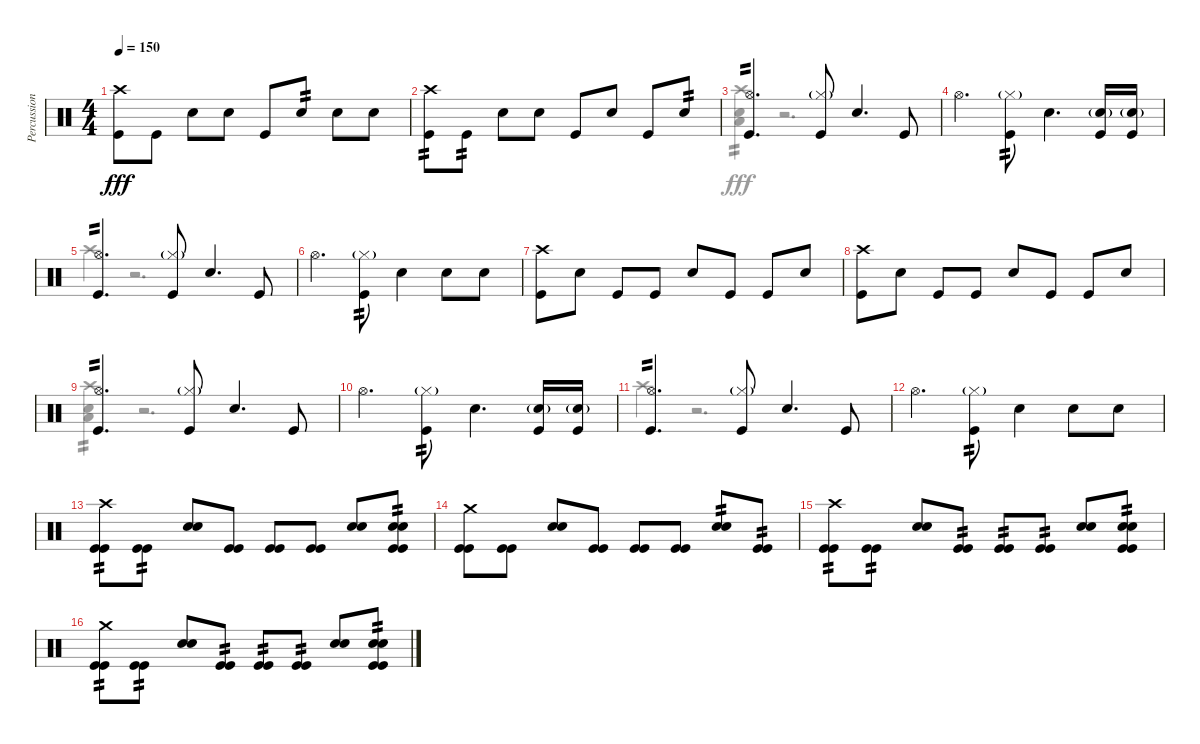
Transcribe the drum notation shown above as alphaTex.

\track ("Percussion" "Percussion") {instrument percussion}
\staff {score}
\articulation defaults
\voice
\ts (4 4)
\tempo 150
\clef neutral
\ks c
("Crash high (hit)" "Kick (hit)").8{dy fff} "Kick (hit)".8 "Snare (hit) 2".8 "Snare (hit) 2".8 "Kick (hit)".8 "Snare (hit) 2".8{tp 2} "Snare (hit) 2".8 "Snare (hit) 2".8 |
("Crash high (hit)" "Kick (hit)").8{tp 2} "Kick (hit)".8{tp 2} "Snare (hit) 2".8 "Snare (hit) 2".8 "Kick (hit)".8 "Snare (hit) 2".8 "Kick (hit)".8 "Snare (hit) 2".8{tp 2} |
("Hi-Hat (open)" "Kick (hit)").4{d tp 2} ("Hi-Hat (closed)"{g} "Kick (hit)").8 "Snare (hit) 2".4{d} "Kick (hit)".8 |
"Hi-Hat (open)".4{d} ("Hi-Hat (closed)"{g} "Kick (hit)").8{tp 2} "Snare (hit) 2".4{d} ("Snare (hit) 2"{g} "Kick (hit)").16 ("Snare (hit) 2"{g} "Kick (hit)").16 |
("Hi-Hat (open)" "Kick (hit)").4{d tp 2} ("Hi-Hat (closed)"{g} "Kick (hit)").8 "Snare (hit) 2".4{d} "Kick (hit)".8 |
"Hi-Hat (open)".4{d} ("Hi-Hat (closed)"{g} "Kick (hit)").8{tp 2} "Snare (hit) 2".4 "Snare (hit) 2".8 "Snare (hit) 2".8 |
("Crash high (hit)" "Kick (hit)").8 "Snare (hit) 2".8 "Kick (hit)".8 "Kick (hit)".8 "Snare (hit) 2".8 "Kick (hit)".8 "Kick (hit)".8 "Snare (hit) 2".8 |
("Crash high (hit)" "Kick (hit)").8 "Snare (hit) 2".8 "Kick (hit)".8 "Kick (hit)".8 "Snare (hit) 2".8 "Kick (hit)".8 "Kick (hit)".8 "Snare (hit) 2".8 |
("Hi-Hat (open)" "Kick (hit)").4{d tp 2} ("Hi-Hat (closed)"{g} "Kick (hit)").8 "Snare (hit) 2".4{d} "Kick (hit)".8 |
"Hi-Hat (open)".4{d} ("Hi-Hat (closed)"{g} "Kick (hit)").8{tp 2} "Snare (hit) 2".4{d} ("Snare (hit) 2"{g} "Kick (hit)").16 ("Snare (hit) 2"{g} "Kick (hit)").16 |
("Hi-Hat (open)" "Kick (hit)").4{d tp 2} ("Hi-Hat (closed)"{g} "Kick (hit)").8 "Snare (hit) 2".4{d} "Kick (hit)".8 |
"Hi-Hat (open)".4{d} ("Hi-Hat (closed)"{g} "Kick (hit)").8{tp 2} "Snare (hit) 2".4 "Snare (hit) 2".8 "Snare (hit) 2".8 |
("Crash high (hit)" "Kick (hit)" "Kick (hit)").8{tp 2} ("Kick (hit)" "Kick (hit)").8{tp 2} ("Snare (hit) 2" "Snare (hit) 2").8 ("Kick (hit)" "Kick (hit)").8 ("Kick (hit)" "Kick (hit)").8 ("Kick (hit)" "Kick (hit)").8 ("Snare (hit) 2" "Snare (hit) 2").8 ("Snare (hit) 2" "Snare (hit) 2" "Kick (hit)" "Kick (hit)").8{tp 2} |
("Crash medium (hit)" "Kick (hit)" "Kick (hit)").8 ("Kick (hit)" "Kick (hit)").8 ("Snare (hit) 2" "Snare (hit) 2").8 ("Kick (hit)" "Kick (hit)").8 ("Kick (hit)" "Kick (hit)").8 ("Kick (hit)" "Kick (hit)").8 ("Snare (hit) 2" "Snare (hit) 2").8{tp 2} ("Kick (hit)" "Kick (hit)").8{tp 2} |
("Crash high (hit)" "Kick (hit)" "Kick (hit)").8{tp 2} ("Kick (hit)" "Kick (hit)").8{tp 2} ("Snare (hit) 2" "Snare (hit) 2").8 ("Kick (hit)" "Kick (hit)").8{tp 2} ("Kick (hit)" "Kick (hit)").8{tp 2} ("Kick (hit)" "Kick (hit)").8{tp 2} ("Snare (hit) 2" "Snare (hit) 2").8 ("Snare (hit) 2" "Snare (hit) 2" "Kick (hit)" "Kick (hit)").8{tp 2} |
("Crash medium (hit)" "Kick (hit)" "Kick (hit)").8{tp 2} ("Kick (hit)" "Kick (hit)").8{tp 2} ("Snare (hit) 2" "Snare (hit) 2").8 ("Kick (hit)" "Kick (hit)").8{tp 2} ("Kick (hit)" "Kick (hit)").8{tp 2} ("Kick (hit)" "Kick (hit)").8{tp 2} ("Snare (hit) 2" "Snare (hit) 2").8 ("Snare (hit) 2" "Snare (hit) 2" "Kick (hit)" "Kick (hit)").8{tp 2}
\voice
\clef neutral
\ottava regular
\simile none
\ks c
|
|
("Crash high (hit)" "Snare (hit) 2" "Low Floor Tom (hit)").4{tp 2} r.2{d} |
|
"Crash high (hit)".4 r.2{d} |
|
|
|
("Crash high (hit)" "Snare (hit) 2" "Low Floor Tom (hit)").4{tp 2} r.2{d} |
|
"Crash high (hit)".4 r.2{d} |
|
|
|
|
